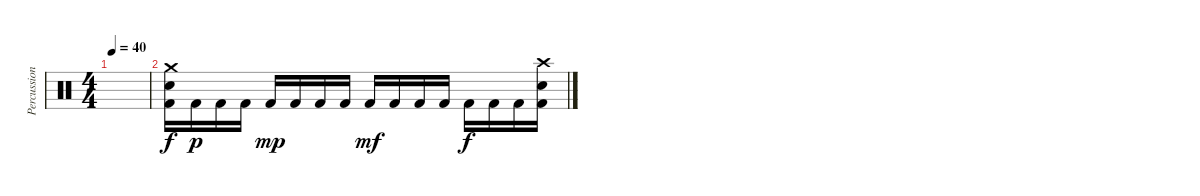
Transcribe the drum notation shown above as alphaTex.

\track ("Percussion" "Percussion") {instrument percussion}
\staff {score}
\articulation defaults
\ts (4 4)
\tempo 40
\clef neutral
\ks c
|
("Crash medium (hit)" "Snare (hit) 2" "Kick (hit) 2").16 "Kick (hit) 2".16{dy p} "Kick (hit) 2".16 "Kick (hit) 2".16 "Kick (hit) 2".16{dy mp} "Kick (hit) 2".16 "Kick (hit) 2".16 "Kick (hit) 2".16 "Kick (hit) 2".16{dy mf} "Kick (hit) 2".16 "Kick (hit) 2".16 "Kick (hit) 2".16 "Kick (hit) 2".16{dy f} "Kick (hit) 2".16 "Kick (hit) 2".16 ("Crash high (hit)" "Snare (hit) 2" "Kick (hit) 2").16
